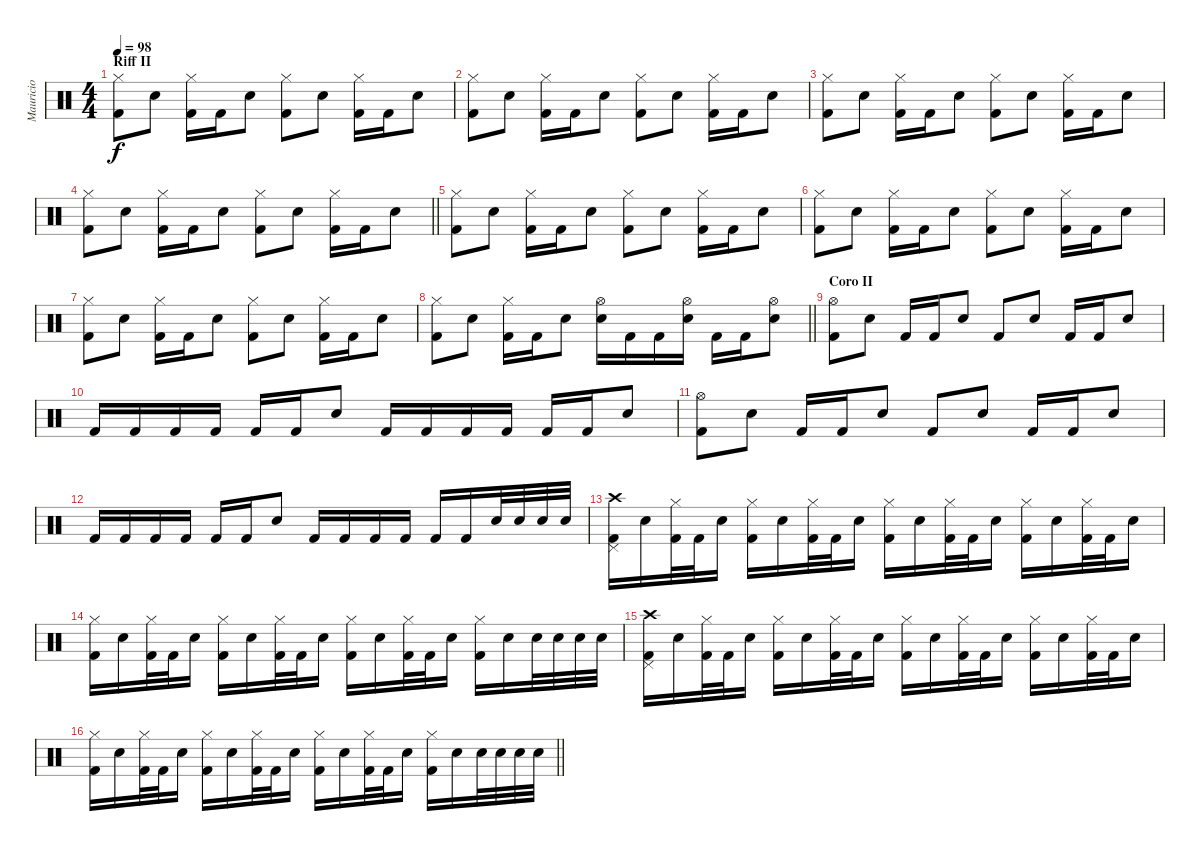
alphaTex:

\track ("Mauricio" "Mauricio") {instrument percussion}
\staff {score}
\articulation defaults
\ts (4 4)
\section ("" "Riff II")
\tempo 98
\clef neutral
\ks c
("Hi-Hat (closed)" "Kick (hit) 2").8{dy f} "Electric Snare (hit)".8 ("Hi-Hat (closed)" "Kick (hit) 2").16 "Kick (hit) 2".16 "Electric Snare (hit)".8 ("Hi-Hat (closed)" "Kick (hit) 2").8 "Electric Snare (hit)".8 ("Hi-Hat (closed)" "Kick (hit) 2").16 "Kick (hit) 2".16 "Electric Snare (hit)".8 |
("Hi-Hat (closed)" "Kick (hit) 2").8 "Electric Snare (hit)".8 ("Hi-Hat (closed)" "Kick (hit) 2").16 "Kick (hit) 2".16 "Electric Snare (hit)".8 ("Hi-Hat (closed)" "Kick (hit) 2").8 "Electric Snare (hit)".8 ("Hi-Hat (closed)" "Kick (hit) 2").16 "Kick (hit) 2".16 "Electric Snare (hit)".8 |
("Hi-Hat (closed)" "Kick (hit) 2").8 "Electric Snare (hit)".8 ("Hi-Hat (closed)" "Kick (hit) 2").16 "Kick (hit) 2".16 "Electric Snare (hit)".8 ("Hi-Hat (closed)" "Kick (hit) 2").8 "Electric Snare (hit)".8 ("Hi-Hat (closed)" "Kick (hit) 2").16 "Kick (hit) 2".16 "Electric Snare (hit)".8 |
\barLineRight lightlight
("Hi-Hat (closed)" "Kick (hit) 2").8 "Electric Snare (hit)".8 ("Hi-Hat (closed)" "Kick (hit) 2").16 "Kick (hit) 2".16 "Electric Snare (hit)".8 ("Hi-Hat (closed)" "Kick (hit) 2").8 "Electric Snare (hit)".8 ("Hi-Hat (closed)" "Kick (hit) 2").16 "Kick (hit) 2".16 "Electric Snare (hit)".8 |
("Hi-Hat (closed)" "Kick (hit) 2").8 "Electric Snare (hit)".8 ("Hi-Hat (closed)" "Kick (hit) 2").16 "Kick (hit) 2".16 "Electric Snare (hit)".8 ("Hi-Hat (closed)" "Kick (hit) 2").8 "Electric Snare (hit)".8 ("Hi-Hat (closed)" "Kick (hit) 2").16 "Kick (hit) 2".16 "Electric Snare (hit)".8 |
("Hi-Hat (closed)" "Kick (hit) 2").8 "Electric Snare (hit)".8 ("Hi-Hat (closed)" "Kick (hit) 2").16 "Kick (hit) 2".16 "Electric Snare (hit)".8 ("Hi-Hat (closed)" "Kick (hit) 2").8 "Electric Snare (hit)".8 ("Hi-Hat (closed)" "Kick (hit) 2").16 "Kick (hit) 2".16 "Electric Snare (hit)".8 |
("Hi-Hat (closed)" "Kick (hit) 2").8 "Electric Snare (hit)".8 ("Hi-Hat (closed)" "Kick (hit) 2").16 "Kick (hit) 2".16 "Electric Snare (hit)".8 ("Hi-Hat (closed)" "Kick (hit) 2").8 "Electric Snare (hit)".8 ("Hi-Hat (closed)" "Kick (hit) 2").16 "Kick (hit) 2".16 "Electric Snare (hit)".8 |
\barLineRight lightlight
("Hi-Hat (closed)" "Kick (hit) 2").8 "Electric Snare (hit)".8 ("Hi-Hat (closed)" "Kick (hit) 2").16 "Kick (hit) 2".16 "Electric Snare (hit)".8 ("Hi-Hat (open)" "Electric Snare (hit)").16 "Kick (hit) 2".16 "Kick (hit) 2".16 ("Hi-Hat (open)" "Electric Snare (hit)").16 "Kick (hit) 2".16 "Kick (hit) 2".16 ("Hi-Hat (open)" "Electric Snare (hit)").8 |
\section ("" "Coro II")
("Hi-Hat (open)" "Kick (hit) 2").8 "Electric Snare (hit)".8 "Kick (hit) 2".16 "Kick (hit) 2".16 "Electric Snare (hit)".8 "Kick (hit) 2".8 "Electric Snare (hit)".8 "Kick (hit) 2".16 "Kick (hit) 2".16 "Electric Snare (hit)".8 |
"Kick (hit) 2".16 "Kick (hit) 2".16 "Kick (hit) 2".16 "Kick (hit) 2".16 "Kick (hit) 2".16 "Kick (hit) 2".16 "Electric Snare (hit)".8 "Kick (hit) 2".16 "Kick (hit) 2".16 "Kick (hit) 2".16 "Kick (hit) 2".16 "Kick (hit) 2".16 "Kick (hit) 2".16 "Electric Snare (hit)".8 |
("Hi-Hat (open)" "Kick (hit) 2").8 "Electric Snare (hit)".8 "Kick (hit) 2".16 "Kick (hit) 2".16 "Electric Snare (hit)".8 "Kick (hit) 2".8 "Electric Snare (hit)".8 "Kick (hit) 2".16 "Kick (hit) 2".16 "Electric Snare (hit)".8 |
"Kick (hit) 2".16 "Kick (hit) 2".16 "Kick (hit) 2".16 "Kick (hit) 2".16 "Kick (hit) 2".16 "Kick (hit) 2".16 "Electric Snare (hit)".8 "Kick (hit) 2".16 "Kick (hit) 2".16 "Kick (hit) 2".16 "Kick (hit) 2".16 "Kick (hit) 2".16 "Kick (hit) 2".16 "Electric Snare (hit)".32 "Electric Snare (hit)".32 "Electric Snare (hit)".32 "Electric Snare (hit)".32 |
("Crash high (hit)" "Pedal Hi-Hat (hit)" "Kick (hit) 2").16 "Electric Snare (hit)".16 ("Hi-Hat (closed)" "Kick (hit) 2").32 "Kick (hit) 2".32 "Electric Snare (hit)".16 ("Hi-Hat (closed)" "Kick (hit) 2").16 "Electric Snare (hit)".16 ("Hi-Hat (closed)" "Kick (hit) 2").32 "Kick (hit) 2".32 "Electric Snare (hit)".16 ("Hi-Hat (closed)" "Kick (hit) 2").16 "Electric Snare (hit)".16 ("Hi-Hat (closed)" "Kick (hit) 2").32 "Kick (hit) 2".32 "Electric Snare (hit)".16 ("Hi-Hat (closed)" "Kick (hit) 2").16 "Electric Snare (hit)".16 ("Hi-Hat (closed)" "Kick (hit) 2").32 "Kick (hit) 2".32 "Electric Snare (hit)".16 |
("Hi-Hat (closed)" "Kick (hit) 2").16 "Electric Snare (hit)".16 ("Hi-Hat (closed)" "Kick (hit) 2").32 "Kick (hit) 2".32 "Electric Snare (hit)".16 ("Hi-Hat (closed)" "Kick (hit) 2").16 "Electric Snare (hit)".16 ("Hi-Hat (closed)" "Kick (hit) 2").32 "Kick (hit) 2".32 "Electric Snare (hit)".16 ("Hi-Hat (closed)" "Kick (hit) 2").16 "Electric Snare (hit)".16 ("Hi-Hat (closed)" "Kick (hit) 2").32 "Kick (hit) 2".32 "Electric Snare (hit)".16 ("Hi-Hat (closed)" "Kick (hit) 2").16 "Electric Snare (hit)".16 "Electric Snare (hit)".32 "Electric Snare (hit)".32 "Electric Snare (hit)".32 "Electric Snare (hit)".32 |
("Crash high (hit)" "Pedal Hi-Hat (hit)" "Kick (hit) 2").16 "Electric Snare (hit)".16 ("Hi-Hat (closed)" "Kick (hit) 2").32 "Kick (hit) 2".32 "Electric Snare (hit)".16 ("Hi-Hat (closed)" "Kick (hit) 2").16 "Electric Snare (hit)".16 ("Hi-Hat (closed)" "Kick (hit) 2").32 "Kick (hit) 2".32 "Electric Snare (hit)".16 ("Hi-Hat (closed)" "Kick (hit) 2").16 "Electric Snare (hit)".16 ("Hi-Hat (closed)" "Kick (hit) 2").32 "Kick (hit) 2".32 "Electric Snare (hit)".16 ("Hi-Hat (closed)" "Kick (hit) 2").16 "Electric Snare (hit)".16 ("Hi-Hat (closed)" "Kick (hit) 2").32 "Kick (hit) 2".32 "Electric Snare (hit)".16 |
\barLineRight lightlight
("Hi-Hat (closed)" "Kick (hit) 2").16 "Electric Snare (hit)".16 ("Hi-Hat (closed)" "Kick (hit) 2").32 "Kick (hit) 2".32 "Electric Snare (hit)".16 ("Hi-Hat (closed)" "Kick (hit) 2").16 "Electric Snare (hit)".16 ("Hi-Hat (closed)" "Kick (hit) 2").32 "Kick (hit) 2".32 "Electric Snare (hit)".16 ("Hi-Hat (closed)" "Kick (hit) 2").16 "Electric Snare (hit)".16 ("Hi-Hat (closed)" "Kick (hit) 2").32 "Kick (hit) 2".32 "Electric Snare (hit)".16 ("Hi-Hat (closed)" "Kick (hit) 2").16 "Electric Snare (hit)".16 "Electric Snare (hit)".32 "Electric Snare (hit)".32 "Electric Snare (hit)".32 "Electric Snare (hit)".32
